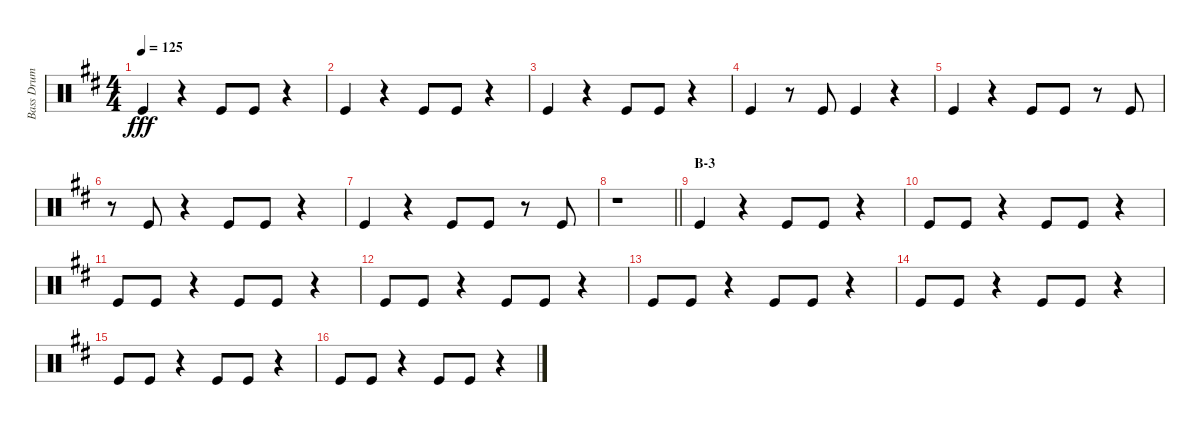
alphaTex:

\track ("Bass Drum" "Bass Drum") {instrument percussion}
\staff {score}
\articulation defaults
\ts (4 4)
\tempo 125
\clef neutral
\ks d "Kick (hit)".4{dy fff}
r.4 "Kick (hit)".8 "Kick (hit)".8 r.4 |
"Kick (hit)".4 r.4 "Kick (hit)".8 "Kick (hit)".8 r.4 |
"Kick (hit)".4 r.4 "Kick (hit)".8 "Kick (hit)".8 r.4 |
"Kick (hit)".4 r.8 "Kick (hit)".8 "Kick (hit)".4 r.4 |
"Kick (hit)".4 r.4 "Kick (hit)".8 "Kick (hit)".8 r.8 "Kick (hit)".8 |
r.8 "Kick (hit)".8 r.4 "Kick (hit)".8 "Kick (hit)".8 r.4 |
"Kick (hit)".4 r.4 "Kick (hit)".8 "Kick (hit)".8 r.8 "Kick (hit)".8 |
\barLineRight lightlight
r.1 |
\section ("" "B-3")
"Kick (hit)".4 r.4 "Kick (hit)".8 "Kick (hit)".8 r.4 |
"Kick (hit)".8 "Kick (hit)".8 r.4 "Kick (hit)".8 "Kick (hit)".8 r.4 |
"Kick (hit)".8 "Kick (hit)".8 r.4 "Kick (hit)".8 "Kick (hit)".8 r.4 |
"Kick (hit)".8 "Kick (hit)".8 r.4 "Kick (hit)".8 "Kick (hit)".8 r.4 |
"Kick (hit)".8 "Kick (hit)".8 r.4 "Kick (hit)".8 "Kick (hit)".8 r.4 |
"Kick (hit)".8 "Kick (hit)".8 r.4 "Kick (hit)".8 "Kick (hit)".8 r.4 |
"Kick (hit)".8 "Kick (hit)".8 r.4 "Kick (hit)".8 "Kick (hit)".8 r.4 |
"Kick (hit)".8 "Kick (hit)".8 r.4 "Kick (hit)".8 "Kick (hit)".8 r.4
